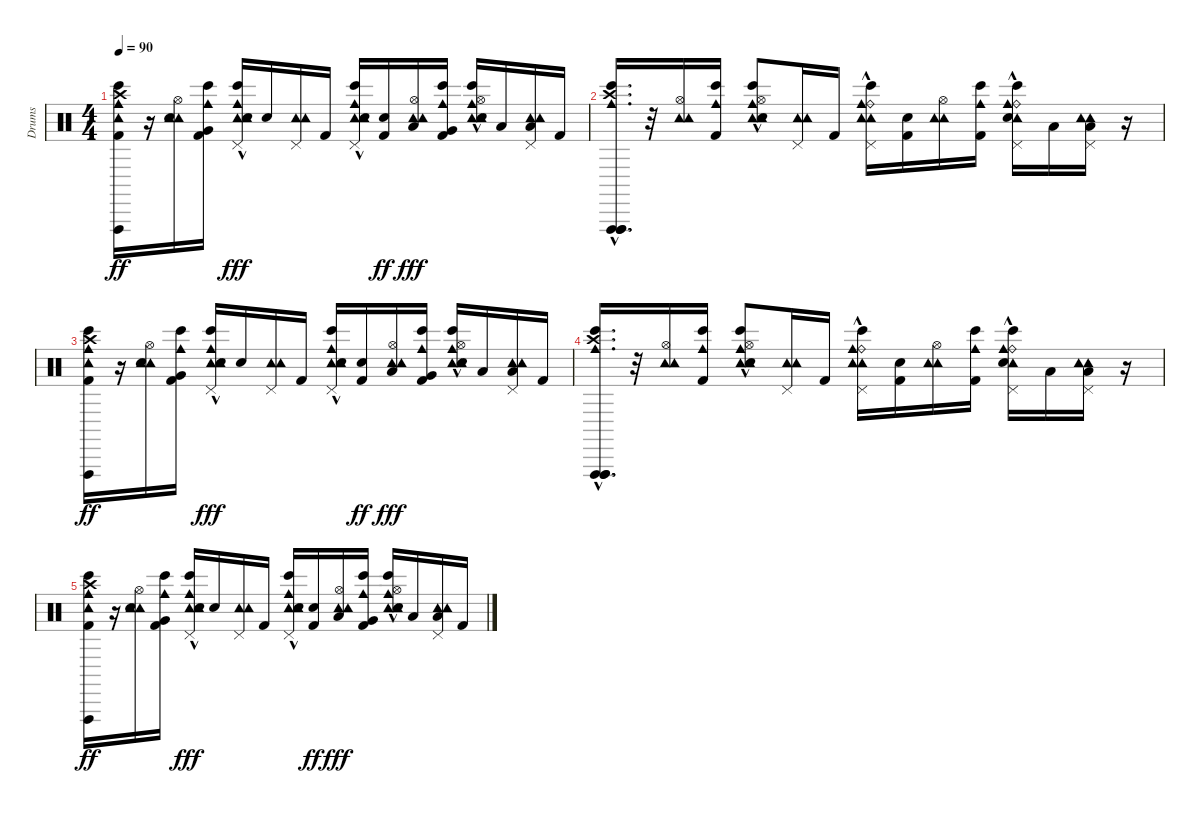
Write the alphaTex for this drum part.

\track ("Drums" "Drums") {instrument percussion}
\staff {score}
\articulation defaults
\ts (4 4)
\tempo 90
\clef neutral
\ks c
("Tambourine (hit)" "Vibraslap (hit)" "Cowbell medium (hit)" "Bongo High (hit)" "Kick (hit) 2" "Crash high (hit)").16{dy ff} r.16 ("Tambourine (hit)" "Hi-Hat (open)" "Tambourine (hit)" "Electric Snare (hit)").16 ("Kick (hit) 2" "Bongo High (hit)" "Cowbell medium (hit)" "Very Low Tom (hit)").16 ("Tambourine (hit)"{hac} "Pedal Hi-Hat (hit)" "Cowbell medium (hit)" "Electric Snare (hit)" "Bongo High (hit)"{hac} "Tambourine (hit)"{hac}).16{dy fff} "Electric Snare (hit)".16 ("Tambourine (hit)" "Pedal Hi-Hat (hit)" "Tambourine (hit)").16 "Kick (hit) 2".16 ("Tambourine (hit)"{hac} "Pedal Hi-Hat (hit)" "Cowbell medium (hit)" "Bongo High (hit)" "Tambourine (hit)"{hac} "Electric Snare (hit)").16 ("Kick (hit) 2" "Electric Snare (hit)").16{dy ff} ("Tambourine (hit)" "Low Tom (hit)" "Tambourine (hit)" "Hi-Hat (open)").16{dy fff} ("Cowbell medium (hit)" "Kick (hit) 2" "Bongo High (hit)" "Very Low Tom (hit)").16 ("Tambourine (hit)"{hac} "Hi-Hat (open)" "Cowbell medium (hit)" "Electric Snare (hit)" "Bongo High (hit)" "Tambourine (hit)"{hac}).16 "Low Tom (hit)".16 ("Tambourine (hit)" "Pedal Hi-Hat (hit)" "Tambourine (hit)" "Low Floor Tom (hit)").16 "Kick (hit) 2".16 |
("Vibraslap (hit)"{hac} "Vibraslap (hit)"{hac} "Vibraslap (hit)"{hac} "Cowbell medium (hit)" "Bongo High (hit)"{hac} "Crash high (hit)"{hac}).16{d volume 13} r.32 ("Tambourine (hit)" "Hi-Hat (open)" "Tambourine (hit)").16 ("Kick (hit) 2" "Bongo High (hit)" "Cowbell medium (hit)").16 ("Tambourine (hit)"{hac} "Hi-Hat (open)" "Cowbell medium (hit)" "Electric Snare (hit)" "Bongo High (hit)"{hac} "Tambourine (hit)"{hac}).8 ("Tambourine (hit)" "Pedal Hi-Hat (hit)" "Tambourine (hit)").16 "Kick (hit) 2".16 ("Tambourine (hit)"{hac} "Pedal Hi-Hat (hit)" "Ride (bell)" "Cowbell medium (hit)" "Bongo High (hit)" "Tambourine (hit)"{hac}).16 ("Kick (hit) 2" "Electric Snare (hit)").16 ("Tambourine (hit)" "Tambourine (hit)" "Hi-Hat (open)").16{volume 13} ("Cowbell medium (hit)" "Kick (hit) 2" "Bongo High (hit)").16{volume 12} ("Tambourine (hit)"{hac} "Pedal Hi-Hat (hit)" "Ride (bell)" "Cowbell medium (hit)" "Electric Snare (hit)" "Bongo High (hit)").16{volume 12} "Low Tom (hit)".16{volume 12} ("Tambourine (hit)" "Pedal Hi-Hat (hit)" "Tambourine (hit)" "Low Floor Tom (hit)").16{volume 12} r.16 |
("Tambourine (hit)" "Vibraslap (hit)" "Cowbell medium (hit)" "Bongo High (hit)" "Kick (hit) 2" "Crash high (hit)").16{dy ff volume 11} r.16 ("Tambourine (hit)" "Hi-Hat (open)" "Tambourine (hit)" "Electric Snare (hit)").16{volume 11} ("Kick (hit) 2" "Bongo High (hit)" "Cowbell medium (hit)" "Very Low Tom (hit)").16{volume 11} ("Tambourine (hit)"{hac} "Pedal Hi-Hat (hit)" "Cowbell medium (hit)" "Electric Snare (hit)" "Bongo High (hit)"{hac} "Tambourine (hit)"{hac}).16{dy fff volume 10} "Electric Snare (hit)".16{volume 10} ("Tambourine (hit)" "Pedal Hi-Hat (hit)" "Tambourine (hit)").16{volume 10} "Kick (hit) 2".16{volume 10} ("Tambourine (hit)"{hac} "Pedal Hi-Hat (hit)" "Cowbell medium (hit)" "Bongo High (hit)" "Tambourine (hit)"{hac} "Electric Snare (hit)").16{volume 10} ("Kick (hit) 2" "Electric Snare (hit)").16{dy ff volume 9} ("Tambourine (hit)" "Low Tom (hit)" "Tambourine (hit)" "Hi-Hat (open)").16{dy fff volume 9} ("Cowbell medium (hit)" "Kick (hit) 2" "Bongo High (hit)" "Very Low Tom (hit)").16{volume 9} ("Tambourine (hit)"{hac} "Hi-Hat (open)" "Cowbell medium (hit)" "Electric Snare (hit)" "Bongo High (hit)" "Tambourine (hit)"{hac}).16{volume 9} "Low Tom (hit)".16{volume 8} ("Tambourine (hit)" "Pedal Hi-Hat (hit)" "Tambourine (hit)" "Low Floor Tom (hit)").16{volume 8} "Kick (hit) 2".16{volume 8} |
("Vibraslap (hit)"{hac} "Vibraslap (hit)"{hac} "Vibraslap (hit)"{hac} "Cowbell medium (hit)" "Bongo High (hit)"{hac} "Crash high (hit)"{hac}).16{d volume 8} r.32 ("Tambourine (hit)" "Hi-Hat (open)" "Tambourine (hit)").16{volume 7} ("Kick (hit) 2" "Bongo High (hit)" "Cowbell medium (hit)").16{volume 7} ("Tambourine (hit)"{hac} "Hi-Hat (open)" "Cowbell medium (hit)" "Electric Snare (hit)" "Bongo High (hit)"{hac} "Tambourine (hit)"{hac}).8{volume 7} ("Tambourine (hit)" "Pedal Hi-Hat (hit)" "Tambourine (hit)").16{volume 6} "Kick (hit) 2".16{volume 6} ("Tambourine (hit)"{hac} "Pedal Hi-Hat (hit)" "Ride (bell)" "Cowbell medium (hit)" "Bongo High (hit)" "Tambourine (hit)"{hac}).16{volume 6} ("Kick (hit) 2" "Electric Snare (hit)").16{volume 6} ("Tambourine (hit)" "Tambourine (hit)" "Hi-Hat (open)").16{volume 6} ("Cowbell medium (hit)" "Kick (hit) 2" "Bongo High (hit)").16{volume 5} ("Tambourine (hit)"{hac} "Pedal Hi-Hat (hit)" "Ride (bell)" "Cowbell medium (hit)" "Electric Snare (hit)" "Bongo High (hit)").16{volume 5} "Low Tom (hit)".16{volume 5} ("Tambourine (hit)" "Pedal Hi-Hat (hit)" "Tambourine (hit)" "Low Floor Tom (hit)").16{volume 5} r.16 |
("Tambourine (hit)" "Vibraslap (hit)" "Cowbell medium (hit)" "Bongo High (hit)" "Kick (hit) 2" "Crash high (hit)").16{dy ff volume 4} r.16 ("Tambourine (hit)" "Hi-Hat (open)" "Tambourine (hit)" "Electric Snare (hit)").16{volume 4} ("Kick (hit) 2" "Bongo High (hit)" "Cowbell medium (hit)" "Very Low Tom (hit)").16{volume 4} ("Tambourine (hit)"{hac} "Pedal Hi-Hat (hit)" "Cowbell medium (hit)" "Electric Snare (hit)" "Bongo High (hit)"{hac} "Tambourine (hit)"{hac}).16{dy fff volume 3} "Electric Snare (hit)".16{volume 3} ("Tambourine (hit)" "Pedal Hi-Hat (hit)" "Tambourine (hit)").16{volume 3} "Kick (hit) 2".16{volume 3} ("Tambourine (hit)"{hac} "Pedal Hi-Hat (hit)" "Cowbell medium (hit)" "Bongo High (hit)" "Tambourine (hit)"{hac} "Electric Snare (hit)").16{volume 2} ("Kick (hit) 2" "Electric Snare (hit)").16{dy ff volume 2} ("Tambourine (hit)" "Low Tom (hit)" "Tambourine (hit)" "Hi-Hat (open)").16{dy fff volume 2} ("Cowbell medium (hit)" "Kick (hit) 2" "Bongo High (hit)" "Very Low Tom (hit)").16{volume 2} ("Tambourine (hit)"{hac} "Hi-Hat (open)" "Cowbell medium (hit)" "Electric Snare (hit)" "Bongo High (hit)" "Tambourine (hit)"{hac}).16{volume 2} "Low Tom (hit)".16{volume 1} ("Tambourine (hit)" "Pedal Hi-Hat (hit)" "Tambourine (hit)" "Low Floor Tom (hit)").16{volume 1} "Kick (hit) 2".16{volume 1}
